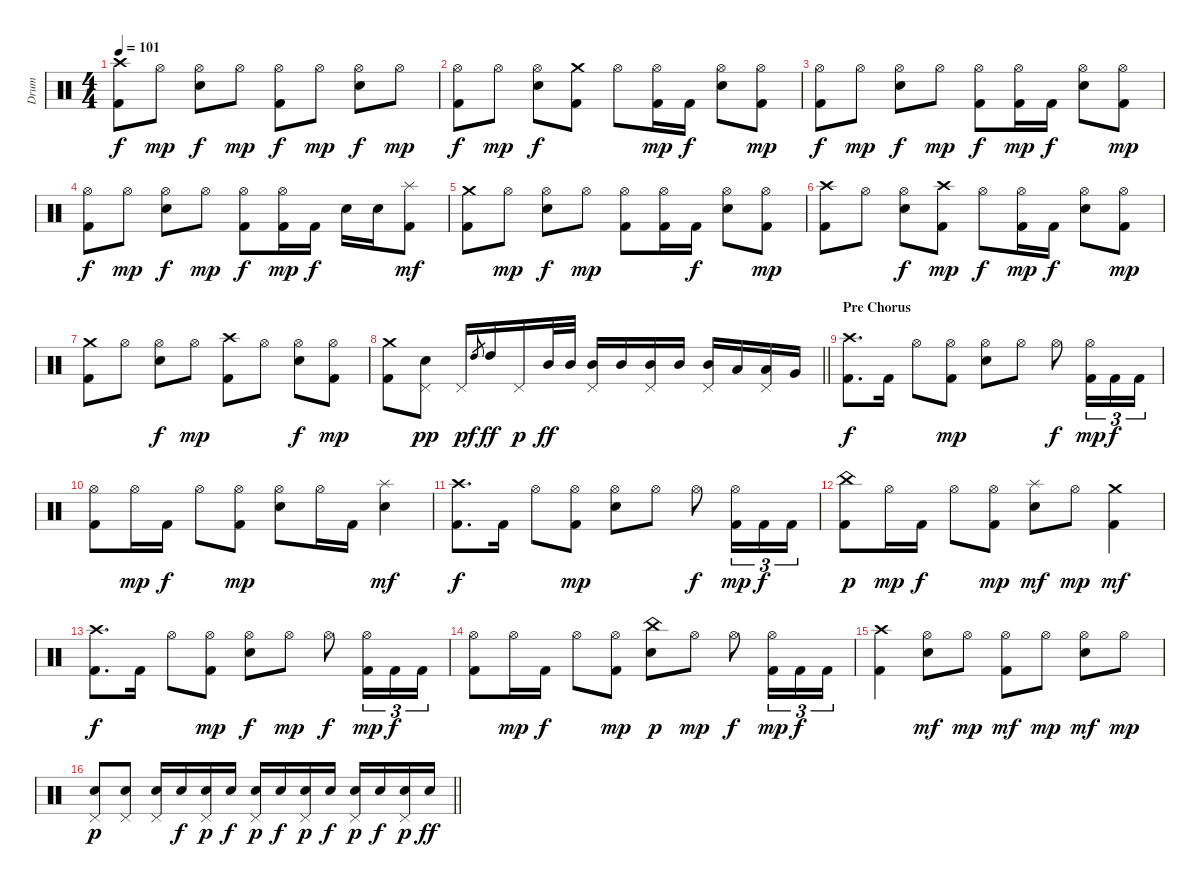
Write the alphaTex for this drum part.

\track ("Drum" "Drum") {instrument percussion}
\staff {score}
\articulation defaults
\ts (4 4)
\tempo 101
\clef neutral
\ks c
("Crash high (hit)" "Kick (hit) 2").8{dy f} "Hi-Hat (open)".8{dy mp} ("Hi-Hat (open)" "Snare (hit) 2").8{dy f} "Hi-Hat (open)".8{dy mp} ("Hi-Hat (open)" "Kick (hit) 2").8{dy f} "Hi-Hat (open)".8{dy mp} ("Hi-Hat (open)" "Snare (hit) 2").8{dy f} "Hi-Hat (open)".8{dy mp} |
("Hi-Hat (open)" "Kick (hit) 2").8{dy f} "Hi-Hat (open)".8{dy mp} ("Hi-Hat (open)" "Snare (hit) 2").8{dy f} ("Crash medium (hit)" "Kick (hit) 2").8 "Hi-Hat (open)".8 ("Hi-Hat (open)" "Kick (hit) 2").16{dy mp} "Kick (hit) 2".16{dy f} ("Hi-Hat (open)" "Snare (hit) 2").8 ("Hi-Hat (open)" "Kick (hit) 2").8{dy mp} |
("Hi-Hat (open)" "Kick (hit) 2").8{dy f} "Hi-Hat (open)".8{dy mp} ("Hi-Hat (open)" "Snare (hit) 2").8{dy f} "Hi-Hat (open)".8{dy mp} ("Hi-Hat (open)" "Kick (hit) 2").8{dy f} ("Hi-Hat (open)" "Kick (hit) 2").16{dy mp} "Kick (hit) 2".16{dy f} ("Hi-Hat (open)" "Snare (hit) 2").8 ("Hi-Hat (open)" "Kick (hit) 2").8{dy mp} |
("Hi-Hat (open)" "Kick (hit) 2").8{dy f} "Hi-Hat (open)".8{dy mp} ("Hi-Hat (open)" "Snare (hit) 2").8{dy f} "Hi-Hat (open)".8{dy mp} ("Hi-Hat (open)" "Kick (hit) 2").8{dy f} ("Hi-Hat (open)" "Kick (hit) 2").16{dy mp} "Kick (hit) 2".16{dy f} "Snare (hit) 2".16 "Snare (hit) 2".16 ("Splash (hit)" "Kick (hit) 2").8{dy mf} |
("Crash medium (hit)" "Kick (hit) 2").8 "Hi-Hat (open)".8{dy mp} ("Hi-Hat (open)" "Snare (hit) 2").8{dy f} "Hi-Hat (open)".8{dy mp} ("Hi-Hat (open)" "Kick (hit) 2").8 ("Hi-Hat (open)" "Kick (hit) 2").16 "Kick (hit) 2".16{dy f} ("Hi-Hat (open)" "Snare (hit) 2").8 ("Hi-Hat (open)" "Kick (hit) 2").8{dy mp} |
("Crash high (hit)" "Kick (hit) 2").8 "Hi-Hat (open)".8 ("Hi-Hat (open)" "Snare (hit) 2").8{dy f} ("Crash high (hit)" "Kick (hit) 2").8{dy mp} "Hi-Hat (open)".8{dy f} ("Hi-Hat (open)" "Kick (hit) 2").16{dy mp} "Kick (hit) 2".16{dy f} ("Hi-Hat (open)" "Snare (hit) 2").8 ("Hi-Hat (open)" "Kick (hit) 2").8{dy mp} |
("Crash medium (hit)" "Kick (hit) 2").8 "Hi-Hat (open)".8 ("Hi-Hat (open)" "Snare (hit) 2").8{dy f} "Hi-Hat (open)".8{dy mp} ("Crash high (hit)" "Kick (hit) 2").8 "Hi-Hat (open)".8 ("Hi-Hat (open)" "Snare (hit) 2").8{dy f} ("Hi-Hat (open)" "Kick (hit) 2").8{dy mp} |
\barLineRight lightlight
("Crash medium (hit)" "Kick (hit) 2").8 ("Pedal Hi-Hat (hit)" "Snare (hit) 2").8{dy pp} "Pedal Hi-Hat (hit)".16{dy p} "High Tom (hit)".8{gr dy f} "High Tom (hit)".16{dy ff} "Pedal Hi-Hat (hit)".16{dy p} "Mid Tom (hit)".32{dy ff} "Mid Tom (hit)".32 ("Pedal Hi-Hat (hit)" "Mid Tom (hit)").16 "Mid Tom (hit)".16 ("Pedal Hi-Hat (hit)" "Mid Tom (hit)").16 "Mid Tom (hit)".16 ("Pedal Hi-Hat (hit)" "Mid Tom (hit)").16 "Low Tom (hit)".16 ("Pedal Hi-Hat (hit)" "Low Tom (hit)").16 "Very Low Tom (hit)".16 |
\section ("" "Pre Chorus")
("Crash high (hit)" "Kick (hit) 2").8{d dy f} "Kick (hit) 2".16 "Hi-Hat (open)".8 ("Hi-Hat (open)" "Kick (hit) 2").8{dy mp} ("Hi-Hat (open)" "Snare (hit) 2").8 "Hi-Hat (open)".8 "Hi-Hat (open)".8{dy f} ("Hi-Hat (open)" "Kick (hit) 2").16{tu (3 2) dy mp} "Kick (hit) 2".16{tu (3 2) dy f} "Kick (hit) 2".16{tu (3 2)} |
("Hi-Hat (open)" "Kick (hit) 2").8 "Hi-Hat (open)".16{dy mp} "Kick (hit) 2".16{dy f} "Hi-Hat (open)".8 ("Hi-Hat (open)" "Kick (hit) 2").8{dy mp} ("Hi-Hat (open)" "Snare (hit) 2").8 "Hi-Hat (open)".16 "Kick (hit) 2".16 ("Splash (hit)" "Snare (hit) 2").4{dy mf} |
("Crash high (hit)" "Kick (hit) 2").8{d dy f} "Kick (hit) 2".16 "Hi-Hat (open)".8 ("Hi-Hat (open)" "Kick (hit) 2").8{dy mp} ("Hi-Hat (open)" "Snare (hit) 2").8 "Hi-Hat (open)".8 "Hi-Hat (open)".8{dy f} ("Hi-Hat (open)" "Kick (hit) 2").16{tu (3 2) dy mp} "Kick (hit) 2".16{tu (3 2) dy f} "Kick (hit) 2".16{tu (3 2)} |
("China (hit)" "Kick (hit) 2").8{dy p} "Hi-Hat (open)".16{dy mp} "Kick (hit) 2".16{dy f} "Hi-Hat (open)".8 ("Hi-Hat (open)" "Kick (hit) 2").8{dy mp} ("Splash (hit)" "Snare (hit) 2").8{dy mf} "Hi-Hat (open)".8{dy mp} ("Crash medium (hit)" "Kick (hit) 2").4{dy mf} |
("Crash high (hit)" "Kick (hit) 2").8{d dy f} "Kick (hit) 2".16 "Hi-Hat (open)".8 ("Hi-Hat (open)" "Kick (hit) 2").8{dy mp} ("Hi-Hat (open)" "Snare (hit) 2").8{dy f} "Hi-Hat (open)".8{dy mp} "Hi-Hat (open)".8{dy f} ("Hi-Hat (open)" "Kick (hit) 2").16{tu (3 2) dy mp} "Kick (hit) 2".16{tu (3 2) dy f} "Kick (hit) 2".16{tu (3 2)} |
("Hi-Hat (open)" "Kick (hit) 2").8 "Hi-Hat (open)".16{dy mp} "Kick (hit) 2".16{dy f} "Hi-Hat (open)".8 ("Hi-Hat (open)" "Kick (hit) 2").8{dy mp} ("China (hit)" "Snare (hit) 2").8{dy p} "Hi-Hat (open)".8{dy mp} "Hi-Hat (open)".8{dy f} ("Hi-Hat (open)" "Kick (hit) 2").16{tu (3 2) dy mp} "Kick (hit) 2".16{tu (3 2) dy f} "Kick (hit) 2".16{tu (3 2)} |
("Crash high (hit)" "Kick (hit) 2").4 ("Hi-Hat (open)" "Snare (hit) 2").8{dy mf} "Hi-Hat (open)".8{dy mp} ("Hi-Hat (open)" "Kick (hit) 2").8{dy mf} "Hi-Hat (open)".8{dy mp} ("Hi-Hat (open)" "Snare (hit) 2").8{dy mf} "Hi-Hat (open)".8{dy mp} |
\barLineRight lightlight
("Snare (hit) 2" "Pedal Hi-Hat (hit)").8{dy p} ("Snare (hit) 2" "Pedal Hi-Hat (hit)").8 ("Snare (hit) 2" "Pedal Hi-Hat (hit)").16 "Snare (hit) 2".16{dy f} ("Snare (hit) 2" "Pedal Hi-Hat (hit)").16{dy p} "Snare (hit) 2".16{dy f} ("Snare (hit) 2" "Pedal Hi-Hat (hit)").16{dy p} "Snare (hit) 2".16{dy f} ("Snare (hit) 2" "Pedal Hi-Hat (hit)").16{dy p} "Snare (hit) 2".16{dy f} ("Snare (hit) 2" "Pedal Hi-Hat (hit)").16{dy p} "Snare (hit) 2".16{dy f} ("Snare (hit) 2" "Pedal Hi-Hat (hit)").16{dy p} "Snare (hit) 2".16{dy ff}
